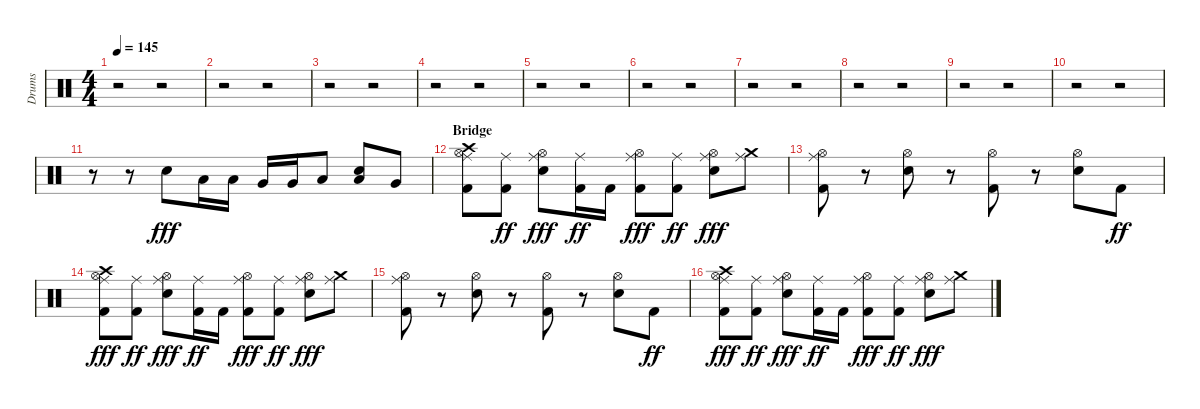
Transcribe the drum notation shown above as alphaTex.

\track ("Drums" "Drums") {instrument percussion}
\staff {score}
\articulation defaults
\ts (4 4)
\tempo 145
\clef neutral
\ks c
r.2{dy f} r.2 |
r.2 r.2 |
r.2 r.2 |
r.2 r.2 |
r.2 r.2 |
r.2 r.2 |
r.2 r.2 |
r.2 r.2 |
r.2 r.2 |
r.2 r.2 |
r.8 r.8 "Snare (hit) 2".8{dy fff} "Low Tom (hit)".16 "Low Tom (hit)".16 "Very Low Tom (hit)".16 "Very Low Tom (hit)".16 "Low Floor Tom (hit)".8 ("Low Tom (hit)" "Snare (hit) 2").8 "Very Low Tom (hit)".8 |
\section ("" "Bridge")
("Ride (middle)" "Crash high (hit)" "Hi-Hat (open)" "Kick (hit) 2").8 ("Ride (middle)" "Kick (hit) 2").8{dy ff} ("Ride (middle)" "Hi-Hat (open)" "Snare (hit) 2").8{dy fff} ("Ride (middle)" "Kick (hit) 2").16{dy ff} "Kick (hit) 2".16 ("Ride (middle)" "Hi-Hat (open)" "Kick (hit) 2").8{dy fff} ("Ride (middle)" "Kick (hit) 2").8{dy ff} ("Ride (middle)" "Hi-Hat (open)" "Snare (hit) 2").8{dy fff} ("Ride (middle)" "Crash medium (hit)").8 |
("Ride (middle)" "Hi-Hat (open)" "Kick (hit) 2").8 r.8 ("Hi-Hat (open)" "Snare (hit) 2").8 r.8 ("Hi-Hat (open)" "Kick (hit) 2").8 r.8 ("Hi-Hat (open)" "Snare (hit) 2").8 "Kick (hit) 2".8{dy ff} |
("Ride (middle)" "Crash high (hit)" "Hi-Hat (open)" "Kick (hit) 2").8{dy fff} ("Ride (middle)" "Kick (hit) 2").8{dy ff} ("Ride (middle)" "Hi-Hat (open)" "Snare (hit) 2").8{dy fff} ("Ride (middle)" "Kick (hit) 2").16{dy ff} "Kick (hit) 2".16 ("Ride (middle)" "Hi-Hat (open)" "Kick (hit) 2").8{dy fff} ("Ride (middle)" "Kick (hit) 2").8{dy ff} ("Ride (middle)" "Hi-Hat (open)" "Snare (hit) 2").8{dy fff} ("Ride (middle)" "Crash medium (hit)").8 |
("Ride (middle)" "Hi-Hat (open)" "Kick (hit) 2").8 r.8 ("Hi-Hat (open)" "Snare (hit) 2").8 r.8 ("Hi-Hat (open)" "Kick (hit) 2").8 r.8 ("Hi-Hat (open)" "Snare (hit) 2").8 "Kick (hit) 2".8{dy ff} |
("Ride (middle)" "Crash high (hit)" "Hi-Hat (open)" "Kick (hit) 2").8{dy fff} ("Ride (middle)" "Kick (hit) 2").8{dy ff} ("Ride (middle)" "Hi-Hat (open)" "Snare (hit) 2").8{dy fff} ("Ride (middle)" "Kick (hit) 2").16{dy ff} "Kick (hit) 2".16 ("Ride (middle)" "Hi-Hat (open)" "Kick (hit) 2").8{dy fff} ("Ride (middle)" "Kick (hit) 2").8{dy ff} ("Ride (middle)" "Hi-Hat (open)" "Snare (hit) 2").8{dy fff} ("Ride (middle)" "Crash medium (hit)").8
